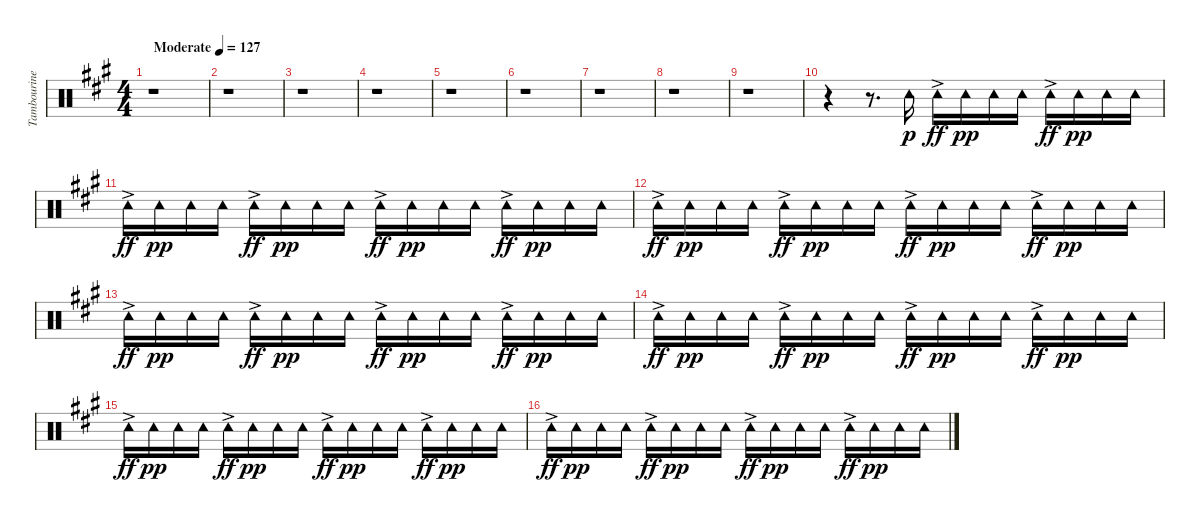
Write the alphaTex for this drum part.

\track ("Tambourine" "Tambourine") {instrument percussion}
\staff {score}
\articulation defaults
\ts (4 4)
\tempo (127 "Moderate")
\clef neutral
\ks a
r.1{dy p volume 6 balance 4} |
r.1 |
r.1 |
r.1 |
r.1 |
r.1 |
r.1 |
r.1 |
r.1 |
r.4 r.8{d} "Tambourine (hit)".16 "Tambourine (hit)"{ac}.16{dy ff} "Tambourine (hit)".16{dy pp} "Tambourine (hit)".16 "Tambourine (hit)".16 "Tambourine (hit)"{ac}.16{dy ff} "Tambourine (hit)".16{dy pp} "Tambourine (hit)".16 "Tambourine (hit)".16 |
"Tambourine (hit)"{ac}.16{dy ff} "Tambourine (hit)".16{dy pp} "Tambourine (hit)".16 "Tambourine (hit)".16 "Tambourine (hit)"{ac}.16{dy ff} "Tambourine (hit)".16{dy pp} "Tambourine (hit)".16 "Tambourine (hit)".16 "Tambourine (hit)"{ac}.16{dy ff} "Tambourine (hit)".16{dy pp} "Tambourine (hit)".16 "Tambourine (hit)".16 "Tambourine (hit)"{ac}.16{dy ff} "Tambourine (hit)".16{dy pp} "Tambourine (hit)".16 "Tambourine (hit)".16 |
"Tambourine (hit)"{ac}.16{dy ff} "Tambourine (hit)".16{dy pp} "Tambourine (hit)".16 "Tambourine (hit)".16 "Tambourine (hit)"{ac}.16{dy ff} "Tambourine (hit)".16{dy pp} "Tambourine (hit)".16 "Tambourine (hit)".16 "Tambourine (hit)"{ac}.16{dy ff} "Tambourine (hit)".16{dy pp} "Tambourine (hit)".16 "Tambourine (hit)".16 "Tambourine (hit)"{ac}.16{dy ff} "Tambourine (hit)".16{dy pp} "Tambourine (hit)".16 "Tambourine (hit)".16 |
"Tambourine (hit)"{ac}.16{dy ff} "Tambourine (hit)".16{dy pp} "Tambourine (hit)".16 "Tambourine (hit)".16 "Tambourine (hit)"{ac}.16{dy ff} "Tambourine (hit)".16{dy pp} "Tambourine (hit)".16 "Tambourine (hit)".16 "Tambourine (hit)"{ac}.16{dy ff} "Tambourine (hit)".16{dy pp} "Tambourine (hit)".16 "Tambourine (hit)".16 "Tambourine (hit)"{ac}.16{dy ff} "Tambourine (hit)".16{dy pp} "Tambourine (hit)".16 "Tambourine (hit)".16 |
"Tambourine (hit)"{ac}.16{dy ff} "Tambourine (hit)".16{dy pp} "Tambourine (hit)".16 "Tambourine (hit)".16 "Tambourine (hit)"{ac}.16{dy ff} "Tambourine (hit)".16{dy pp} "Tambourine (hit)".16 "Tambourine (hit)".16 "Tambourine (hit)"{ac}.16{dy ff} "Tambourine (hit)".16{dy pp} "Tambourine (hit)".16 "Tambourine (hit)".16 "Tambourine (hit)"{ac}.16{dy ff} "Tambourine (hit)".16{dy pp} "Tambourine (hit)".16 "Tambourine (hit)".16 |
"Tambourine (hit)"{ac}.16{dy ff} "Tambourine (hit)".16{dy pp} "Tambourine (hit)".16 "Tambourine (hit)".16 "Tambourine (hit)"{ac}.16{dy ff} "Tambourine (hit)".16{dy pp} "Tambourine (hit)".16 "Tambourine (hit)".16 "Tambourine (hit)"{ac}.16{dy ff} "Tambourine (hit)".16{dy pp} "Tambourine (hit)".16 "Tambourine (hit)".16 "Tambourine (hit)"{ac}.16{dy ff} "Tambourine (hit)".16{dy pp} "Tambourine (hit)".16 "Tambourine (hit)".16 |
"Tambourine (hit)"{ac}.16{dy ff} "Tambourine (hit)".16{dy pp} "Tambourine (hit)".16 "Tambourine (hit)".16 "Tambourine (hit)"{ac}.16{dy ff} "Tambourine (hit)".16{dy pp} "Tambourine (hit)".16 "Tambourine (hit)".16 "Tambourine (hit)"{ac}.16{dy ff} "Tambourine (hit)".16{dy pp} "Tambourine (hit)".16 "Tambourine (hit)".16 "Tambourine (hit)"{ac}.16{dy ff} "Tambourine (hit)".16{dy pp} "Tambourine (hit)".16 "Tambourine (hit)".16
